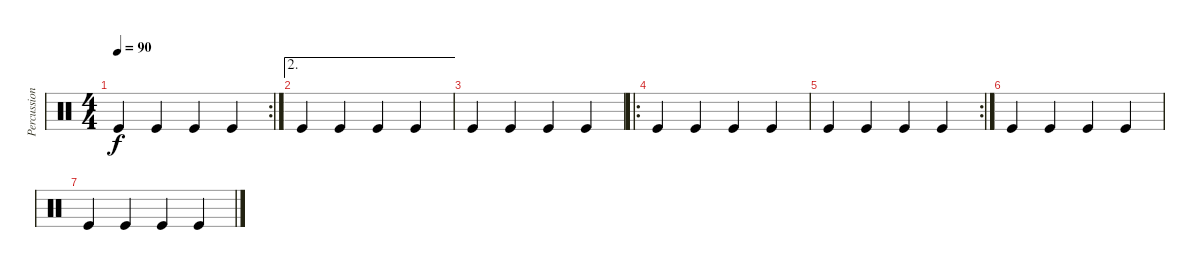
\track ("Percussion" "Percussion") {instrument percussion}
\staff {score}
\articulation defaults
\rc 2
\ts (4 4)
\tempo 90
\clef neutral
\ks c "Kick (hit)".4{dy f} "Kick (hit)".4 "Kick (hit)".4 "Kick (hit)".4
|
\ae 2 "Kick (hit)".4 "Kick (hit)".4 "Kick (hit)".4 "Kick (hit)".4
|
"Kick (hit)".4 "Kick (hit)".4 "Kick (hit)".4 "Kick (hit)".4 |
\ro "Kick (hit)".4 "Kick (hit)".4 "Kick (hit)".4 "Kick (hit)".4
|
\rc 2 "Kick (hit)".4 "Kick (hit)".4 "Kick (hit)".4 "Kick (hit)".4
|
"Kick (hit)".4{volume 0} "Kick (hit)".4 "Kick (hit)".4 "Kick (hit)".4 |
"Kick (hit)".4 "Kick (hit)".4 "Kick (hit)".4 "Kick (hit)".4
